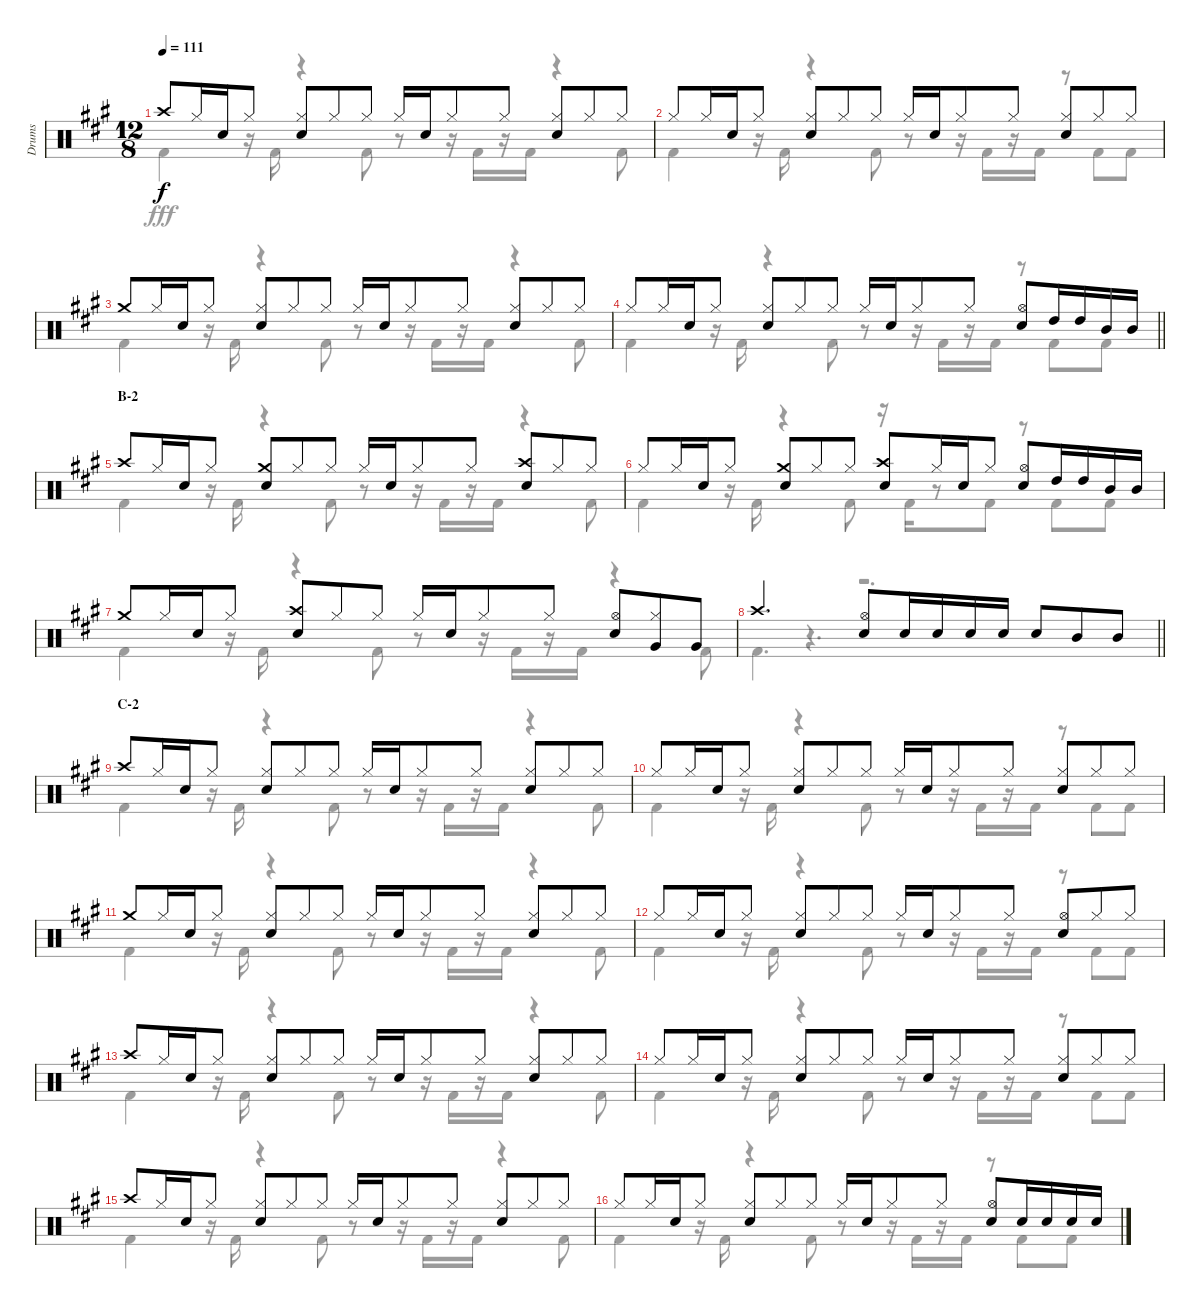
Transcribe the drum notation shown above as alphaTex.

\track ("Drums" "Drums") {instrument percussion}
\staff {score}
\articulation defaults
\voice
\ts (12 8)
\tempo 111
\clef neutral
\ks a "Crash high (hit)".8{dy f} "Hi-Hat (closed)".16 "Snare (hit) 2".16 "Hi-Hat (closed)".8
("Hi-Hat (closed)" "Snare (hit) 2").8 "Hi-Hat (closed)".8 "Hi-Hat (closed)".8 "Hi-Hat (closed)".16 "Snare (hit) 2".16 "Hi-Hat (closed)".8 "Hi-Hat (closed)".8 ("Hi-Hat (closed)" "Snare (hit) 2").8 "Hi-Hat (closed)".8 "Hi-Hat (closed)".8 |
"Hi-Hat (closed)".8 "Hi-Hat (closed)".16 "Snare (hit) 2".16 "Hi-Hat (closed)".8 ("Hi-Hat (closed)" "Snare (hit) 2").8 "Hi-Hat (closed)".8 "Hi-Hat (closed)".8 "Hi-Hat (closed)".16 "Snare (hit) 2".16 "Hi-Hat (closed)".8 "Hi-Hat (closed)".8 ("Hi-Hat (closed)" "Snare (hit) 2").8 "Hi-Hat (closed)".8 "Hi-Hat (closed)".8 |
"Crash medium (hit)".8 "Hi-Hat (closed)".16 "Snare (hit) 2".16 "Hi-Hat (closed)".8 ("Hi-Hat (closed)" "Snare (hit) 2").8 "Hi-Hat (closed)".8 "Hi-Hat (closed)".8 "Hi-Hat (closed)".16 "Snare (hit) 2".16 "Hi-Hat (closed)".8 "Hi-Hat (closed)".8 ("Hi-Hat (closed)" "Snare (hit) 2").8 "Hi-Hat (closed)".8 "Hi-Hat (closed)".8 |
\barLineRight lightlight "Hi-Hat (closed)".8 "Hi-Hat (closed)".16 "Snare (hit) 2".16 "Hi-Hat (closed)".8
("Hi-Hat (closed)" "Snare (hit) 2").8 "Hi-Hat (closed)".8 "Hi-Hat (closed)".8 "Hi-Hat (closed)".16 "Snare (hit) 2".16 "Hi-Hat (closed)".8 "Hi-Hat (closed)".8 ("Hi-Hat (open)" "Snare (hit) 2").8 "High Tom (hit)".16 "High Tom (hit)".16 "Mid Tom (hit)".16 "Mid Tom (hit)".16 |
\section ("" "B-2")
"Crash high (hit)".8 "Hi-Hat (closed)".16 "Snare (hit) 2".16 "Hi-Hat (closed)".8 ("Crash medium (hit)" "Snare (hit) 2").8 "Hi-Hat (closed)".8 "Hi-Hat (closed)".8 "Hi-Hat (closed)".16 "Snare (hit) 2".16 "Hi-Hat (closed)".8 "Hi-Hat (closed)".8 ("Crash high (hit)" "Snare (hit) 2").8 "Hi-Hat (closed)".8 "Hi-Hat (closed)".8 |
"Hi-Hat (closed)".8 "Hi-Hat (closed)".16 "Snare (hit) 2".16 "Hi-Hat (closed)".8 ("Crash medium (hit)" "Snare (hit) 2").8 "Hi-Hat (closed)".8 "Hi-Hat (closed)".8 ("Crash high (hit)" "Snare (hit) 2").8 "Hi-Hat (closed)".16 "Snare (hit) 2".16 "Hi-Hat (closed)".8 ("Hi-Hat (open)" "Snare (hit) 2").8 "High Tom (hit)".16 "High Tom (hit)".16 "Mid Tom (hit)".16 "Mid Tom (hit)".16 |
"Crash medium (hit)".8 "Hi-Hat (closed)".16 "Snare (hit) 2".16 "Hi-Hat (closed)".8 ("Crash high (hit)" "Snare (hit) 2").8 "Hi-Hat (closed)".8 "Hi-Hat (closed)".8 "Hi-Hat (closed)".16 "Snare (hit) 2".16 "Hi-Hat (closed)".8 "Hi-Hat (closed)".8 ("Hi-Hat (open)" "Snare (hit) 2").8 ("Hi-Hat (closed)" "Very Low Tom (hit)").8 "Very Low Tom (hit)".8 |
\barLineRight lightlight "Crash high (hit)".2{d}
("Hi-Hat (open)" "Snare (hit) 2").8 "Snare (hit) 2".16 "Snare (hit) 2".16 "Snare (hit) 2".16 "Snare (hit) 2".16 "Snare (hit) 2".8 "Mid Tom (hit)".8 "Mid Tom (hit)".8 |
\section ("" "C-2")
"Crash high (hit)".8 "Hi-Hat (closed)".16 "Snare (hit) 2".16 "Hi-Hat (closed)".8 ("Hi-Hat (closed)" "Snare (hit) 2").8 "Hi-Hat (closed)".8 "Hi-Hat (closed)".8 "Hi-Hat (closed)".16 "Snare (hit) 2".16 "Hi-Hat (closed)".8 "Hi-Hat (closed)".8 ("Hi-Hat (closed)" "Snare (hit) 2").8 "Hi-Hat (closed)".8 "Hi-Hat (closed)".8 |
"Hi-Hat (closed)".8 "Hi-Hat (closed)".16 "Snare (hit) 2".16 "Hi-Hat (closed)".8 ("Hi-Hat (closed)" "Snare (hit) 2").8 "Hi-Hat (closed)".8 "Hi-Hat (closed)".8 "Hi-Hat (closed)".16 "Snare (hit) 2".16 "Hi-Hat (closed)".8 "Hi-Hat (closed)".8 ("Hi-Hat (closed)" "Snare (hit) 2").8 "Hi-Hat (closed)".8 "Hi-Hat (closed)".8 |
"Crash medium (hit)".8 "Hi-Hat (closed)".16 "Snare (hit) 2".16 "Hi-Hat (closed)".8 ("Hi-Hat (closed)" "Snare (hit) 2").8 "Hi-Hat (closed)".8 "Hi-Hat (closed)".8 "Hi-Hat (closed)".16 "Snare (hit) 2".16 "Hi-Hat (closed)".8 "Hi-Hat (closed)".8 ("Hi-Hat (closed)" "Snare (hit) 2").8 "Hi-Hat (closed)".8 "Hi-Hat (closed)".8 |
"Hi-Hat (closed)".8 "Hi-Hat (closed)".16 "Snare (hit) 2".16 "Hi-Hat (closed)".8 ("Hi-Hat (closed)" "Snare (hit) 2").8 "Hi-Hat (closed)".8 "Hi-Hat (closed)".8 "Hi-Hat (closed)".16 "Snare (hit) 2".16 "Hi-Hat (closed)".8 "Hi-Hat (closed)".8 ("Hi-Hat (open)" "Snare (hit) 2").8 "Hi-Hat (closed)".8 "Hi-Hat (closed)".8 |
"Crash high (hit)".8 "Hi-Hat (closed)".16 "Snare (hit) 2".16 "Hi-Hat (closed)".8 ("Hi-Hat (closed)" "Snare (hit) 2").8 "Hi-Hat (closed)".8 "Hi-Hat (closed)".8 "Hi-Hat (closed)".16 "Snare (hit) 2".16 "Hi-Hat (closed)".8 "Hi-Hat (closed)".8 ("Hi-Hat (closed)" "Snare (hit) 2").8 "Hi-Hat (closed)".8 "Hi-Hat (closed)".8 |
"Hi-Hat (closed)".8 "Hi-Hat (closed)".16 "Snare (hit) 2".16 "Hi-Hat (closed)".8 ("Hi-Hat (closed)" "Snare (hit) 2").8 "Hi-Hat (closed)".8 "Hi-Hat (closed)".8 "Hi-Hat (closed)".16 "Snare (hit) 2".16 "Hi-Hat (closed)".8 "Hi-Hat (closed)".8 ("Hi-Hat (closed)" "Snare (hit) 2").8 "Hi-Hat (closed)".8 "Hi-Hat (closed)".8 |
"Crash high (hit)".8 "Hi-Hat (closed)".16 "Snare (hit) 2".16 "Hi-Hat (closed)".8 ("Hi-Hat (closed)" "Snare (hit) 2").8 "Hi-Hat (closed)".8 "Hi-Hat (closed)".8 "Hi-Hat (closed)".16 "Snare (hit) 2".16 "Hi-Hat (closed)".8 "Hi-Hat (closed)".8 ("Hi-Hat (closed)" "Snare (hit) 2").8 "Hi-Hat (closed)".8 "Hi-Hat (closed)".8 |
"Hi-Hat (closed)".8 "Hi-Hat (closed)".16 "Snare (hit) 2".16 "Hi-Hat (closed)".8 ("Hi-Hat (closed)" "Snare (hit) 2").8 "Hi-Hat (closed)".8 "Hi-Hat (closed)".8 "Hi-Hat (closed)".16 "Snare (hit) 2".16 "Hi-Hat (closed)".8 "Hi-Hat (closed)".8 ("Hi-Hat (open)" "Snare (hit) 2").8 "Snare (hit) 2".16 "Snare (hit) 2".16 "Snare (hit) 2".16 "Snare (hit) 2".16
\voice
\clef neutral
\ottava regular
\simile none
\ks a "Kick (hit) 2".4{dy fff}
r.16 "Kick (hit) 2".16 r.4 "Kick (hit) 2".8 r.8 r.16 "Kick (hit) 2".16 r.16 "Kick (hit) 2".16 r.4 "Kick (hit) 2".8 |
"Kick (hit) 2".4 r.16 "Kick (hit) 2".16 r.4 "Kick (hit) 2".8 r.8 r.16 "Kick (hit) 2".16 r.16 "Kick (hit) 2".16 r.8 "Kick (hit) 2".8 "Kick (hit) 2".8 |
"Kick (hit) 2".4 r.16 "Kick (hit) 2".16 r.4 "Kick (hit) 2".8 r.8 r.16 "Kick (hit) 2".16 r.16 "Kick (hit) 2".16 r.4 "Kick (hit) 2".8 |
\barLineRight lightlight "Kick (hit) 2".4
r.16 "Kick (hit) 2".16 r.4 "Kick (hit) 2".8 r.8 r.16 "Kick (hit) 2".16 r.16 "Kick (hit) 2".16 r.8 "Kick (hit) 2".8 "Kick (hit) 2".8 |
"Kick (hit) 2".4 r.16 "Kick (hit) 2".16 r.4 "Kick (hit) 2".8 r.8 r.16 "Kick (hit) 2".16 r.16 "Kick (hit) 2".16 r.4 "Kick (hit) 2".8 |
"Kick (hit) 2".4 r.16 "Kick (hit) 2".16 r.4 "Kick (hit) 2".8 r.16 "Kick (hit) 2".16 r.8 "Kick (hit) 2".8 r.8 "Kick (hit) 2".8 "Kick (hit) 2".8 |
"Kick (hit) 2".4 r.16 "Kick (hit) 2".16 r.4 "Kick (hit) 2".8 r.8 r.16 "Kick (hit) 2".16 r.16 "Kick (hit) 2".16 r.4 "Kick (hit) 2".8 |
\barLineRight lightlight "Kick (hit) 2".4{d}
r.4{d} r.2{d} |
"Kick (hit) 2".4 r.16 "Kick (hit) 2".16 r.4 "Kick (hit) 2".8 r.8 r.16 "Kick (hit) 2".16 r.16 "Kick (hit) 2".16 r.4 "Kick (hit) 2".8 |
"Kick (hit) 2".4 r.16 "Kick (hit) 2".16 r.4 "Kick (hit) 2".8 r.8 r.16 "Kick (hit) 2".16 r.16 "Kick (hit) 2".16 r.8 "Kick (hit) 2".8 "Kick (hit) 2".8 |
"Kick (hit) 2".4 r.16 "Kick (hit) 2".16 r.4 "Kick (hit) 2".8 r.8 r.16 "Kick (hit) 2".16 r.16 "Kick (hit) 2".16 r.4 "Kick (hit) 2".8 |
"Kick (hit) 2".4 r.16 "Kick (hit) 2".16 r.4 "Kick (hit) 2".8 r.8 r.16 "Kick (hit) 2".16 r.16 "Kick (hit) 2".16 r.8 "Kick (hit) 2".8 "Kick (hit) 2".8 |
"Kick (hit) 2".4 r.16 "Kick (hit) 2".16 r.4 "Kick (hit) 2".8 r.8 r.16 "Kick (hit) 2".16 r.16 "Kick (hit) 2".16 r.4 "Kick (hit) 2".8 |
"Kick (hit) 2".4 r.16 "Kick (hit) 2".16 r.4 "Kick (hit) 2".8 r.8 r.16 "Kick (hit) 2".16 r.16 "Kick (hit) 2".16 r.8 "Kick (hit) 2".8 "Kick (hit) 2".8 |
"Kick (hit) 2".4 r.16 "Kick (hit) 2".16 r.4 "Kick (hit) 2".8 r.8 r.16 "Kick (hit) 2".16 r.16 "Kick (hit) 2".16 r.4 "Kick (hit) 2".8 |
"Kick (hit) 2".4 r.16 "Kick (hit) 2".16 r.4 "Kick (hit) 2".8 r.8 r.16 "Kick (hit) 2".16 r.16 "Kick (hit) 2".16 r.8 "Kick (hit) 2".8 "Kick (hit) 2".8
